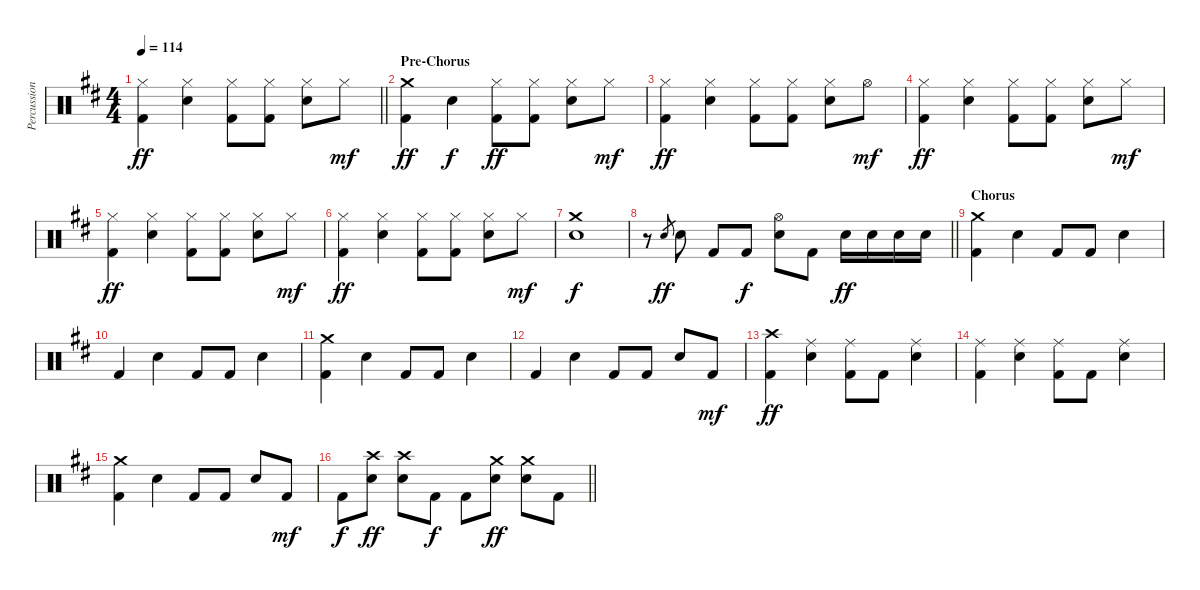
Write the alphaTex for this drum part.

\track ("Percussion" "Percussion") {instrument percussion}
\staff {score}
\articulation defaults
\ts (4 4)
\tempo 114
\clef neutral
\barLineRight lightlight
\ks d
("Hi-Hat (closed)" "Kick (hit) 2").4{dy ff} ("Hi-Hat (closed)" "Snare (hit) 2").4 ("Hi-Hat (closed)" "Kick (hit) 2").8 ("Hi-Hat (closed)" "Kick (hit) 2").8 ("Hi-Hat (closed)" "Snare (hit) 2").8 "Hi-Hat (closed)".8{dy mf} |
\section ("" "Pre-Chorus")
("Crash medium (hit)" "Kick (hit) 2").4{dy ff} "Snare (hit) 2".4{dy f} ("Hi-Hat (closed)" "Kick (hit) 2").8{dy ff} ("Hi-Hat (closed)" "Kick (hit) 2").8 ("Hi-Hat (closed)" "Snare (hit) 2").8 "Hi-Hat (closed)".8{dy mf} |
("Hi-Hat (closed)" "Kick (hit) 2").4{dy ff} ("Hi-Hat (closed)" "Snare (hit) 2").4 ("Hi-Hat (closed)" "Kick (hit) 2").8 ("Hi-Hat (closed)" "Kick (hit) 2").8 ("Hi-Hat (closed)" "Snare (hit) 2").8 "Hi-Hat (open)".8{dy mf} |
("Hi-Hat (closed)" "Kick (hit) 2").4{dy ff} ("Hi-Hat (closed)" "Snare (hit) 2").4 ("Hi-Hat (closed)" "Kick (hit) 2").8 ("Hi-Hat (closed)" "Kick (hit) 2").8 ("Hi-Hat (closed)" "Snare (hit) 2").8 "Hi-Hat (closed)".8{dy mf} |
("Hi-Hat (closed)" "Kick (hit) 2").4{dy ff} ("Hi-Hat (closed)" "Snare (hit) 2").4 ("Hi-Hat (closed)" "Kick (hit) 2").8 ("Hi-Hat (closed)" "Kick (hit) 2").8 ("Hi-Hat (closed)" "Snare (hit) 2").8 "Hi-Hat (closed)".8{dy mf} |
("Hi-Hat (closed)" "Kick (hit) 2").4{dy ff} ("Hi-Hat (closed)" "Snare (hit) 2").4 ("Hi-Hat (closed)" "Kick (hit) 2").8 ("Hi-Hat (closed)" "Kick (hit) 2").8 ("Hi-Hat (closed)" "Snare (hit) 2").8 "Hi-Hat (closed)".8{dy mf} |
("Crash medium (hit)" "Snare (hit) 2").1{dy f} |
\barLineRight lightlight
r.8 "Snare (hit) 2".8{gr dy ff} "Snare (hit) 2".8 "Kick (hit) 2".8 "Kick (hit) 2".8{dy f} ("Hi-Hat (open)" "Snare (hit) 2").8 "Kick (hit) 2".8 "Snare (hit) 2".16{dy ff} "Snare (hit) 2".16 "Snare (hit) 2".16 "Snare (hit) 2".16 |
\section ("" "Chorus")
("Crash medium (hit)" "Kick (hit) 2").4 "Snare (hit) 2".4 "Kick (hit) 2".8 "Kick (hit) 2".8 "Snare (hit) 2".4 |
"Kick (hit) 2".4 "Snare (hit) 2".4 "Kick (hit) 2".8 "Kick (hit) 2".8 "Snare (hit) 2".4 |
("Crash medium (hit)" "Kick (hit) 2").4 "Snare (hit) 2".4 "Kick (hit) 2".8 "Kick (hit) 2".8 "Snare (hit) 2".4 |
"Kick (hit) 2".4 "Snare (hit) 2".4 "Kick (hit) 2".8 "Kick (hit) 2".8 "Snare (hit) 2".8 "Kick (hit) 2".8{dy mf} |
("Crash high (hit)" "Kick (hit) 2").4{dy ff} ("Ride (middle)" "Snare (hit) 2").4 ("Ride (middle)" "Kick (hit) 2").8 "Kick (hit) 2".8 ("Ride (middle)" "Snare (hit) 2").4 |
("Ride (middle)" "Kick (hit) 2").4 ("Ride (middle)" "Snare (hit) 2").4 ("Ride (middle)" "Kick (hit) 2").8 "Kick (hit) 2".8 ("Ride (middle)" "Snare (hit) 2").4 |
("Crash medium (hit)" "Kick (hit) 2").4 "Snare (hit) 2".4 "Kick (hit) 2".8 "Kick (hit) 2".8 "Snare (hit) 2".8 "Kick (hit) 2".8{dy mf} |
\barLineRight lightlight "Kick (hit) 2".8{dy f}
("Crash high (hit)" "Snare (hit) 2").8{dy ff} ("Crash high (hit)" "Snare (hit) 2").8 "Kick (hit) 2".8{dy f} "Kick (hit) 2".8 ("Crash medium (hit)" "Snare (hit) 2").8{dy ff} ("Crash medium (hit)" "Snare (hit) 2").8 "Kick (hit) 2".8
